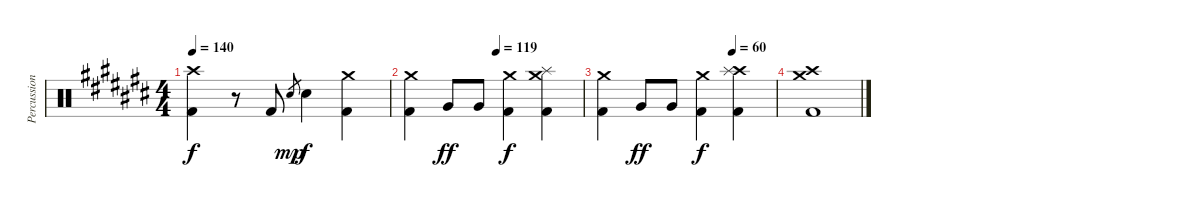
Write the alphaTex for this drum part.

\track ("Percussion" "Percussion") {instrument percussion}
\staff {score}
\articulation defaults
\ts (4 4)
\tempo 140
\clef neutral
\ks c#
("Crash high (hit)" "Kick (hit) 2").4{dy f} r.8 "Kick (hit) 2".8 "Electric Snare (hit)".8{gr dy mp} "Electric Snare (hit)".4{dy f} ("Crash medium (hit)" "Kick (hit) 2").4 |
\tempo (119 0.5)
("Crash medium (hit)" "Kick (hit) 2").4 "Very Low Tom (hit)".8{dy ff} "Very Low Tom (hit)".8 ("Crash medium (hit)" "Kick (hit) 2").4{dy f} ("Crash medium (hit)" "Splash (hit)" "Kick (hit) 2").4 |
\tempo (60 0.75)
("Crash medium (hit)" "Kick (hit) 2").4 "Very Low Tom (hit)".8{dy ff} "Very Low Tom (hit)".8 ("Crash medium (hit)" "Kick (hit) 2").4{dy f} ("Crash high (hit)" "Splash (hit)" "Kick (hit) 2").4 |
("Crash high (hit)" "Crash medium (hit)" "Kick (hit) 2").1
